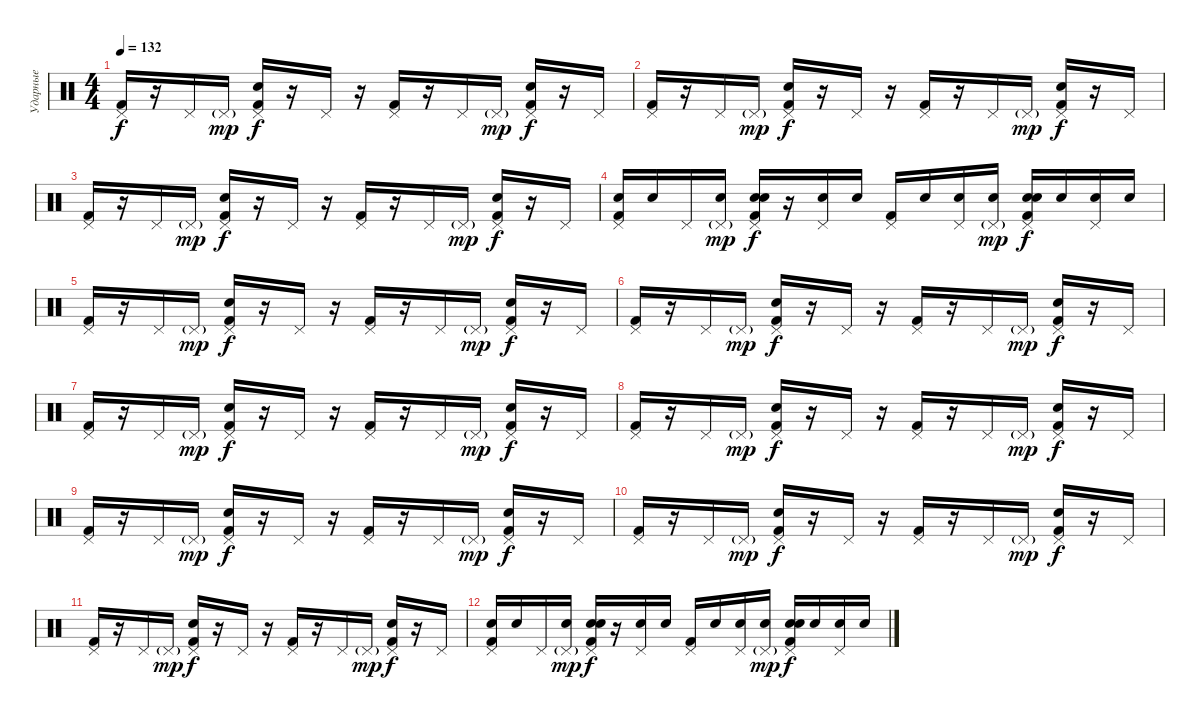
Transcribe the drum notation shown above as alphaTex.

\track ("Ударные" "Ударные") {instrument percussion}
\staff {score}
\articulation defaults
\ts (4 4)
\tempo 132
\clef neutral
\ks c
("Pedal Hi-Hat (hit)" "Kick (hit) 2").16{dy f} r.16 "Pedal Hi-Hat (hit)".16 "Pedal Hi-Hat (hit)"{g}.16{dy mp} ("Pedal Hi-Hat (hit)" "Snare (hit) 2" "Kick (hit) 2").16{dy f} r.16 "Pedal Hi-Hat (hit)".16 r.16 ("Pedal Hi-Hat (hit)" "Kick (hit) 2").16 r.16 "Pedal Hi-Hat (hit)".16 "Pedal Hi-Hat (hit)"{g}.16{dy mp} ("Pedal Hi-Hat (hit)" "Snare (hit) 2" "Kick (hit) 2").16{dy f} r.16 "Pedal Hi-Hat (hit)".16 |
("Pedal Hi-Hat (hit)" "Kick (hit) 2").16 r.16 "Pedal Hi-Hat (hit)".16 "Pedal Hi-Hat (hit)"{g}.16{dy mp} ("Pedal Hi-Hat (hit)" "Snare (hit) 2" "Kick (hit) 2").16{dy f} r.16 "Pedal Hi-Hat (hit)".16 r.16 ("Pedal Hi-Hat (hit)" "Kick (hit) 2").16 r.16 "Pedal Hi-Hat (hit)".16 "Pedal Hi-Hat (hit)"{g}.16{dy mp} ("Pedal Hi-Hat (hit)" "Snare (hit) 2" "Kick (hit) 2").16{dy f} r.16 "Pedal Hi-Hat (hit)".16 |
("Pedal Hi-Hat (hit)" "Kick (hit) 2").16 r.16 "Pedal Hi-Hat (hit)".16 "Pedal Hi-Hat (hit)"{g}.16{dy mp} ("Pedal Hi-Hat (hit)" "Snare (hit) 2" "Kick (hit) 2").16{dy f} r.16 "Pedal Hi-Hat (hit)".16 r.16 ("Pedal Hi-Hat (hit)" "Kick (hit) 2").16 r.16 "Pedal Hi-Hat (hit)".16 "Pedal Hi-Hat (hit)"{g}.16{dy mp} ("Pedal Hi-Hat (hit)" "Snare (hit) 2" "Kick (hit) 2").16{dy f} r.16 "Pedal Hi-Hat (hit)".16 |
("Pedal Hi-Hat (hit)" "Electric Snare (hit)" "Kick (hit) 2").16 "Electric Snare (hit)".16 "Pedal Hi-Hat (hit)".16 ("Pedal Hi-Hat (hit)"{g} "Electric Snare (hit)").16{dy mp} ("Pedal Hi-Hat (hit)" "Electric Snare (hit)" "Snare (hit) 2" "Kick (hit) 2").16{dy f} r.16 ("Pedal Hi-Hat (hit)" "Electric Snare (hit)").16 "Electric Snare (hit)".16 ("Pedal Hi-Hat (hit)" "Kick (hit) 2").16 "Electric Snare (hit)".16 ("Pedal Hi-Hat (hit)" "Electric Snare (hit)").16 ("Pedal Hi-Hat (hit)"{g} "Electric Snare (hit)").16{dy mp} ("Pedal Hi-Hat (hit)" "Electric Snare (hit)" "Snare (hit) 2" "Kick (hit) 2").16{dy f} "Electric Snare (hit)".16 ("Pedal Hi-Hat (hit)" "Electric Snare (hit)").16 "Electric Snare (hit)".16 |
("Pedal Hi-Hat (hit)" "Kick (hit) 2").16 r.16 "Pedal Hi-Hat (hit)".16 "Pedal Hi-Hat (hit)"{g}.16{dy mp} ("Pedal Hi-Hat (hit)" "Snare (hit) 2" "Kick (hit) 2").16{dy f} r.16 "Pedal Hi-Hat (hit)".16 r.16 ("Pedal Hi-Hat (hit)" "Kick (hit) 2").16 r.16 "Pedal Hi-Hat (hit)".16 "Pedal Hi-Hat (hit)"{g}.16{dy mp} ("Pedal Hi-Hat (hit)" "Snare (hit) 2" "Kick (hit) 2").16{dy f} r.16 "Pedal Hi-Hat (hit)".16 |
("Pedal Hi-Hat (hit)" "Kick (hit) 2").16 r.16 "Pedal Hi-Hat (hit)".16 "Pedal Hi-Hat (hit)"{g}.16{dy mp} ("Pedal Hi-Hat (hit)" "Snare (hit) 2" "Kick (hit) 2").16{dy f} r.16 "Pedal Hi-Hat (hit)".16 r.16 ("Pedal Hi-Hat (hit)" "Kick (hit) 2").16 r.16 "Pedal Hi-Hat (hit)".16 "Pedal Hi-Hat (hit)"{g}.16{dy mp} ("Pedal Hi-Hat (hit)" "Snare (hit) 2" "Kick (hit) 2").16{dy f} r.16 "Pedal Hi-Hat (hit)".16 |
("Pedal Hi-Hat (hit)" "Kick (hit) 2").16 r.16 "Pedal Hi-Hat (hit)".16 "Pedal Hi-Hat (hit)"{g}.16{dy mp} ("Pedal Hi-Hat (hit)" "Snare (hit) 2" "Kick (hit) 2").16{dy f} r.16 "Pedal Hi-Hat (hit)".16 r.16 ("Pedal Hi-Hat (hit)" "Kick (hit) 2").16 r.16 "Pedal Hi-Hat (hit)".16 "Pedal Hi-Hat (hit)"{g}.16{dy mp} ("Pedal Hi-Hat (hit)" "Snare (hit) 2" "Kick (hit) 2").16{dy f} r.16 "Pedal Hi-Hat (hit)".16 |
("Pedal Hi-Hat (hit)" "Kick (hit) 2").16 r.16 "Pedal Hi-Hat (hit)".16 "Pedal Hi-Hat (hit)"{g}.16{dy mp} ("Pedal Hi-Hat (hit)" "Snare (hit) 2" "Kick (hit) 2").16{dy f} r.16 "Pedal Hi-Hat (hit)".16 r.16 ("Pedal Hi-Hat (hit)" "Kick (hit) 2").16 r.16 "Pedal Hi-Hat (hit)".16 "Pedal Hi-Hat (hit)"{g}.16{dy mp} ("Pedal Hi-Hat (hit)" "Snare (hit) 2" "Kick (hit) 2").16{dy f} r.16 "Pedal Hi-Hat (hit)".16 |
("Pedal Hi-Hat (hit)" "Kick (hit) 2").16 r.16 "Pedal Hi-Hat (hit)".16 "Pedal Hi-Hat (hit)"{g}.16{dy mp} ("Pedal Hi-Hat (hit)" "Snare (hit) 2" "Kick (hit) 2").16{dy f} r.16 "Pedal Hi-Hat (hit)".16 r.16 ("Pedal Hi-Hat (hit)" "Kick (hit) 2").16 r.16 "Pedal Hi-Hat (hit)".16 "Pedal Hi-Hat (hit)"{g}.16{dy mp} ("Pedal Hi-Hat (hit)" "Snare (hit) 2" "Kick (hit) 2").16{dy f} r.16 "Pedal Hi-Hat (hit)".16 |
("Pedal Hi-Hat (hit)" "Kick (hit) 2").16 r.16 "Pedal Hi-Hat (hit)".16 "Pedal Hi-Hat (hit)"{g}.16{dy mp} ("Pedal Hi-Hat (hit)" "Snare (hit) 2" "Kick (hit) 2").16{dy f} r.16 "Pedal Hi-Hat (hit)".16 r.16 ("Pedal Hi-Hat (hit)" "Kick (hit) 2").16 r.16 "Pedal Hi-Hat (hit)".16 "Pedal Hi-Hat (hit)"{g}.16{dy mp} ("Pedal Hi-Hat (hit)" "Snare (hit) 2" "Kick (hit) 2").16{dy f} r.16 "Pedal Hi-Hat (hit)".16 |
("Pedal Hi-Hat (hit)" "Kick (hit) 2").16 r.16 "Pedal Hi-Hat (hit)".16 "Pedal Hi-Hat (hit)"{g}.16{dy mp} ("Pedal Hi-Hat (hit)" "Snare (hit) 2" "Kick (hit) 2").16{dy f} r.16 "Pedal Hi-Hat (hit)".16 r.16 ("Pedal Hi-Hat (hit)" "Kick (hit) 2").16 r.16 "Pedal Hi-Hat (hit)".16 "Pedal Hi-Hat (hit)"{g}.16{dy mp} ("Pedal Hi-Hat (hit)" "Snare (hit) 2" "Kick (hit) 2").16{dy f} r.16 "Pedal Hi-Hat (hit)".16 |
("Pedal Hi-Hat (hit)" "Electric Snare (hit)" "Kick (hit) 2").16 "Electric Snare (hit)".16 "Pedal Hi-Hat (hit)".16 ("Pedal Hi-Hat (hit)"{g} "Electric Snare (hit)").16{dy mp} ("Pedal Hi-Hat (hit)" "Electric Snare (hit)" "Snare (hit) 2" "Kick (hit) 2").16{dy f} r.16 ("Pedal Hi-Hat (hit)" "Electric Snare (hit)").16 "Electric Snare (hit)".16 ("Pedal Hi-Hat (hit)" "Kick (hit) 2").16 "Electric Snare (hit)".16 ("Pedal Hi-Hat (hit)" "Electric Snare (hit)").16 ("Pedal Hi-Hat (hit)"{g} "Electric Snare (hit)").16{dy mp} ("Pedal Hi-Hat (hit)" "Electric Snare (hit)" "Snare (hit) 2" "Kick (hit) 2").16{dy f} "Electric Snare (hit)".16 ("Pedal Hi-Hat (hit)" "Electric Snare (hit)").16 "Electric Snare (hit)".16
